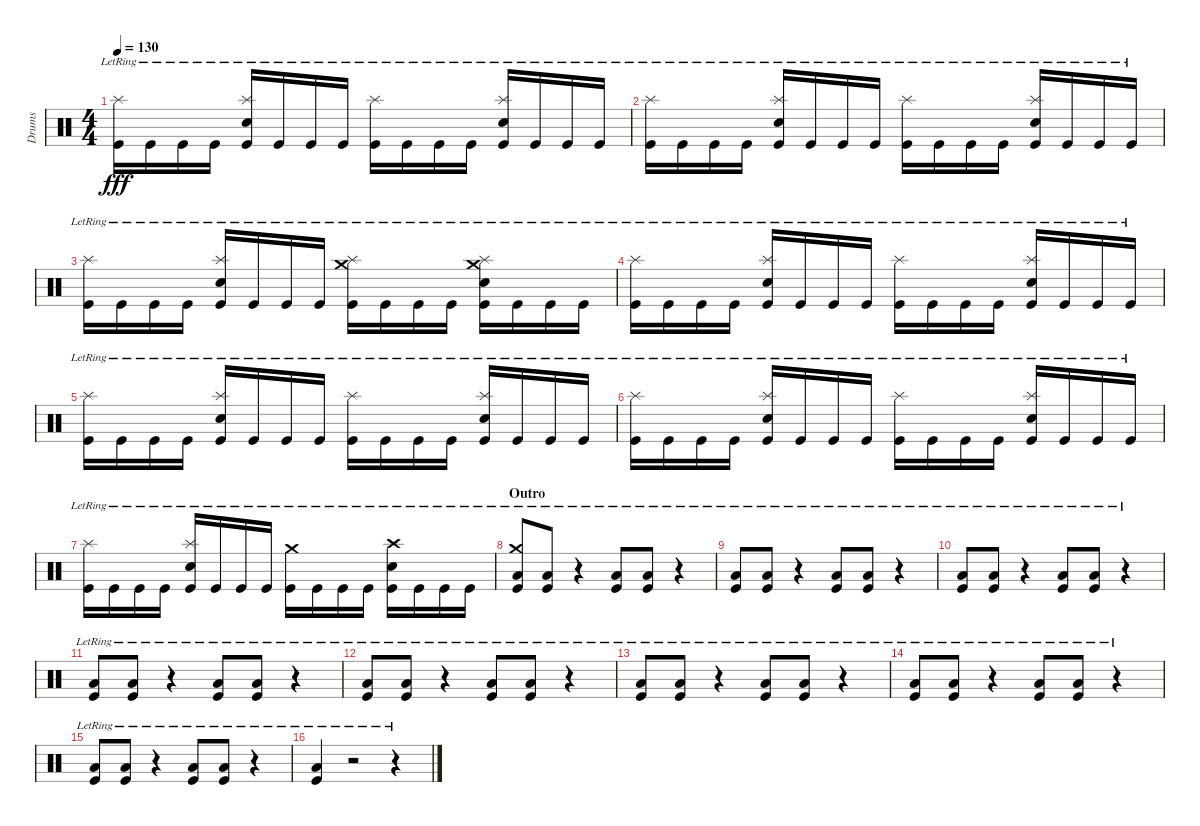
\track ("Drums" "Drums") {instrument percussion}
\staff {score}
\articulation defaults
\ts (4 4)
\tempo 130
\clef neutral
\ks c
("Kick (hit)"{lr} "Splash (hit)"{lr}).16{dy fff} "Kick (hit)"{lr}.16 "Kick (hit)"{lr}.16 "Kick (hit)"{lr}.16 ("Kick (hit)"{lr} "Snare (hit) 2"{lr} "Splash (hit)"{lr}).16 "Kick (hit)"{lr}.16 "Kick (hit)"{lr}.16 "Kick (hit)"{lr}.16 ("Kick (hit)"{lr} "Splash (hit)"{lr}).16 "Kick (hit)"{lr}.16 "Kick (hit)"{lr}.16 "Kick (hit)"{lr}.16 ("Kick (hit)"{lr} "Snare (hit) 2"{lr} "Splash (hit)"{lr}).16 "Kick (hit)"{lr}.16 "Kick (hit)"{lr}.16 "Kick (hit)"{lr}.16 |
("Kick (hit)"{lr} "Splash (hit)"{lr}).16 "Kick (hit)"{lr}.16 "Kick (hit)"{lr}.16 "Kick (hit)"{lr}.16 ("Kick (hit)"{lr} "Snare (hit) 2"{lr} "Splash (hit)"{lr}).16 "Kick (hit)"{lr}.16 "Kick (hit)"{lr}.16 "Kick (hit)"{lr}.16 ("Kick (hit)"{lr} "Splash (hit)"{lr}).16 "Kick (hit)"{lr}.16 "Kick (hit)"{lr}.16 "Kick (hit)"{lr}.16 ("Kick (hit)"{lr} "Snare (hit) 2"{lr} "Splash (hit)"{lr}).16 "Kick (hit)"{lr}.16 "Kick (hit)"{lr}.16 "Kick (hit)"{lr}.16 |
("Kick (hit)"{lr} "Splash (hit)"{lr}).16 "Kick (hit)"{lr}.16 "Kick (hit)"{lr}.16 "Kick (hit)"{lr}.16 ("Kick (hit)"{lr} "Snare (hit) 2"{lr} "Splash (hit)"{lr}).16 "Kick (hit)"{lr}.16 "Kick (hit)"{lr}.16 "Kick (hit)"{lr}.16 ("Kick (hit)"{lr} "Splash (hit)"{lr} "Crash medium (hit)"{lr}).16 "Kick (hit)"{lr}.16 "Kick (hit)"{lr}.16 "Kick (hit)"{lr}.16 ("Kick (hit)"{lr} "Snare (hit) 2"{lr} "Splash (hit)"{lr} "Crash medium (hit)"{lr}).16 "Kick (hit)"{lr}.16 "Kick (hit)"{lr}.16 "Kick (hit)"{lr}.16 |
("Kick (hit)"{lr} "Splash (hit)"{lr}).16 "Kick (hit)"{lr}.16 "Kick (hit)"{lr}.16 "Kick (hit)"{lr}.16 ("Kick (hit)"{lr} "Snare (hit) 2"{lr} "Splash (hit)"{lr}).16 "Kick (hit)"{lr}.16 "Kick (hit)"{lr}.16 "Kick (hit)"{lr}.16 ("Kick (hit)"{lr} "Splash (hit)"{lr}).16 "Kick (hit)"{lr}.16 "Kick (hit)"{lr}.16 "Kick (hit)"{lr}.16 ("Kick (hit)"{lr} "Snare (hit) 2"{lr} "Splash (hit)"{lr}).16 "Kick (hit)"{lr}.16 "Kick (hit)"{lr}.16 "Kick (hit)"{lr}.16 |
("Kick (hit)"{lr} "Splash (hit)"{lr}).16 "Kick (hit)"{lr}.16 "Kick (hit)"{lr}.16 "Kick (hit)"{lr}.16 ("Kick (hit)"{lr} "Snare (hit) 2"{lr} "Splash (hit)"{lr}).16 "Kick (hit)"{lr}.16 "Kick (hit)"{lr}.16 "Kick (hit)"{lr}.16 ("Kick (hit)"{lr} "Splash (hit)"{lr}).16 "Kick (hit)"{lr}.16 "Kick (hit)"{lr}.16 "Kick (hit)"{lr}.16 ("Kick (hit)"{lr} "Snare (hit) 2"{lr} "Splash (hit)"{lr}).16 "Kick (hit)"{lr}.16 "Kick (hit)"{lr}.16 "Kick (hit)"{lr}.16 |
("Kick (hit)"{lr} "Splash (hit)"{lr}).16 "Kick (hit)"{lr}.16 "Kick (hit)"{lr}.16 "Kick (hit)"{lr}.16 ("Kick (hit)"{lr} "Snare (hit) 2"{lr} "Splash (hit)"{lr}).16 "Kick (hit)"{lr}.16 "Kick (hit)"{lr}.16 "Kick (hit)"{lr}.16 ("Kick (hit)"{lr} "Splash (hit)"{lr}).16 "Kick (hit)"{lr}.16 "Kick (hit)"{lr}.16 "Kick (hit)"{lr}.16 ("Kick (hit)"{lr} "Snare (hit) 2"{lr} "Splash (hit)"{lr}).16 "Kick (hit)"{lr}.16 "Kick (hit)"{lr}.16 "Kick (hit)"{lr}.16 |
("Kick (hit)"{lr} "Splash (hit)"{lr}).16 "Kick (hit)"{lr}.16 "Kick (hit)"{lr}.16 "Kick (hit)"{lr}.16 ("Kick (hit)"{lr} "Snare (hit) 2"{lr} "Splash (hit)"{lr}).16 "Kick (hit)"{lr}.16 "Kick (hit)"{lr}.16 "Kick (hit)"{lr}.16 ("Kick (hit)"{lr} "Crash medium (hit)"{lr}).16 "Kick (hit)"{lr}.16 "Kick (hit)"{lr}.16 "Kick (hit)"{lr}.16 ("Kick (hit)"{lr} "Snare (hit) 2"{lr} "Crash high (hit)"{lr}).16 "Kick (hit)"{lr}.16 "Kick (hit)"{lr}.16 "Kick (hit)"{lr}.16 |
\section ("" "Outro")
("Kick (hit)"{lr} "Low Tom (hit)"{lr} "Crash medium (hit)"{lr}).8 ("Kick (hit)"{lr} "Low Tom (hit)"{lr}).8 r.4 ("Kick (hit)"{lr} "Low Tom (hit)"{lr}).8 ("Kick (hit)"{lr} "Low Tom (hit)"{lr}).8 r.4 |
("Kick (hit)"{lr} "Low Tom (hit)"{lr}).8 ("Kick (hit)"{lr} "Low Tom (hit)"{lr}).8 r.4 ("Kick (hit)"{lr} "Low Tom (hit)"{lr}).8 ("Kick (hit)"{lr} "Low Tom (hit)"{lr}).8 r.4 |
("Kick (hit)"{lr} "Low Tom (hit)"{lr}).8 ("Kick (hit)"{lr} "Low Tom (hit)"{lr}).8 r.4 ("Kick (hit)"{lr} "Low Tom (hit)"{lr}).8 ("Kick (hit)"{lr} "Low Tom (hit)"{lr}).8 r.4 |
("Kick (hit)"{lr} "Low Tom (hit)"{lr}).8 ("Kick (hit)"{lr} "Low Tom (hit)"{lr}).8 r.4 ("Kick (hit)"{lr} "Low Tom (hit)"{lr}).8 ("Kick (hit)"{lr} "Low Tom (hit)"{lr}).8 r.4 |
("Kick (hit)"{lr} "Low Tom (hit)"{lr}).8 ("Kick (hit)"{lr} "Low Tom (hit)"{lr}).8 r.4 ("Kick (hit)"{lr} "Low Tom (hit)"{lr}).8 ("Kick (hit)"{lr} "Low Tom (hit)"{lr}).8 r.4 |
("Kick (hit)"{lr} "Low Tom (hit)"{lr}).8 ("Kick (hit)"{lr} "Low Tom (hit)"{lr}).8 r.4 ("Kick (hit)"{lr} "Low Tom (hit)"{lr}).8 ("Kick (hit)"{lr} "Low Tom (hit)"{lr}).8 r.4 |
("Kick (hit)"{lr} "Low Tom (hit)"{lr}).8 ("Kick (hit)"{lr} "Low Tom (hit)"{lr}).8 r.4 ("Kick (hit)"{lr} "Low Tom (hit)"{lr}).8 ("Kick (hit)"{lr} "Low Tom (hit)"{lr}).8 r.4 |
("Kick (hit)"{lr} "Low Tom (hit)"{lr}).8 ("Kick (hit)"{lr} "Low Tom (hit)"{lr}).8 r.4 ("Kick (hit)"{lr} "Low Tom (hit)"{lr}).8 ("Kick (hit)"{lr} "Low Tom (hit)"{lr}).8 r.4 |
("Kick (hit)"{lr} "Low Tom (hit)"{lr}).4 r.2 r.4
